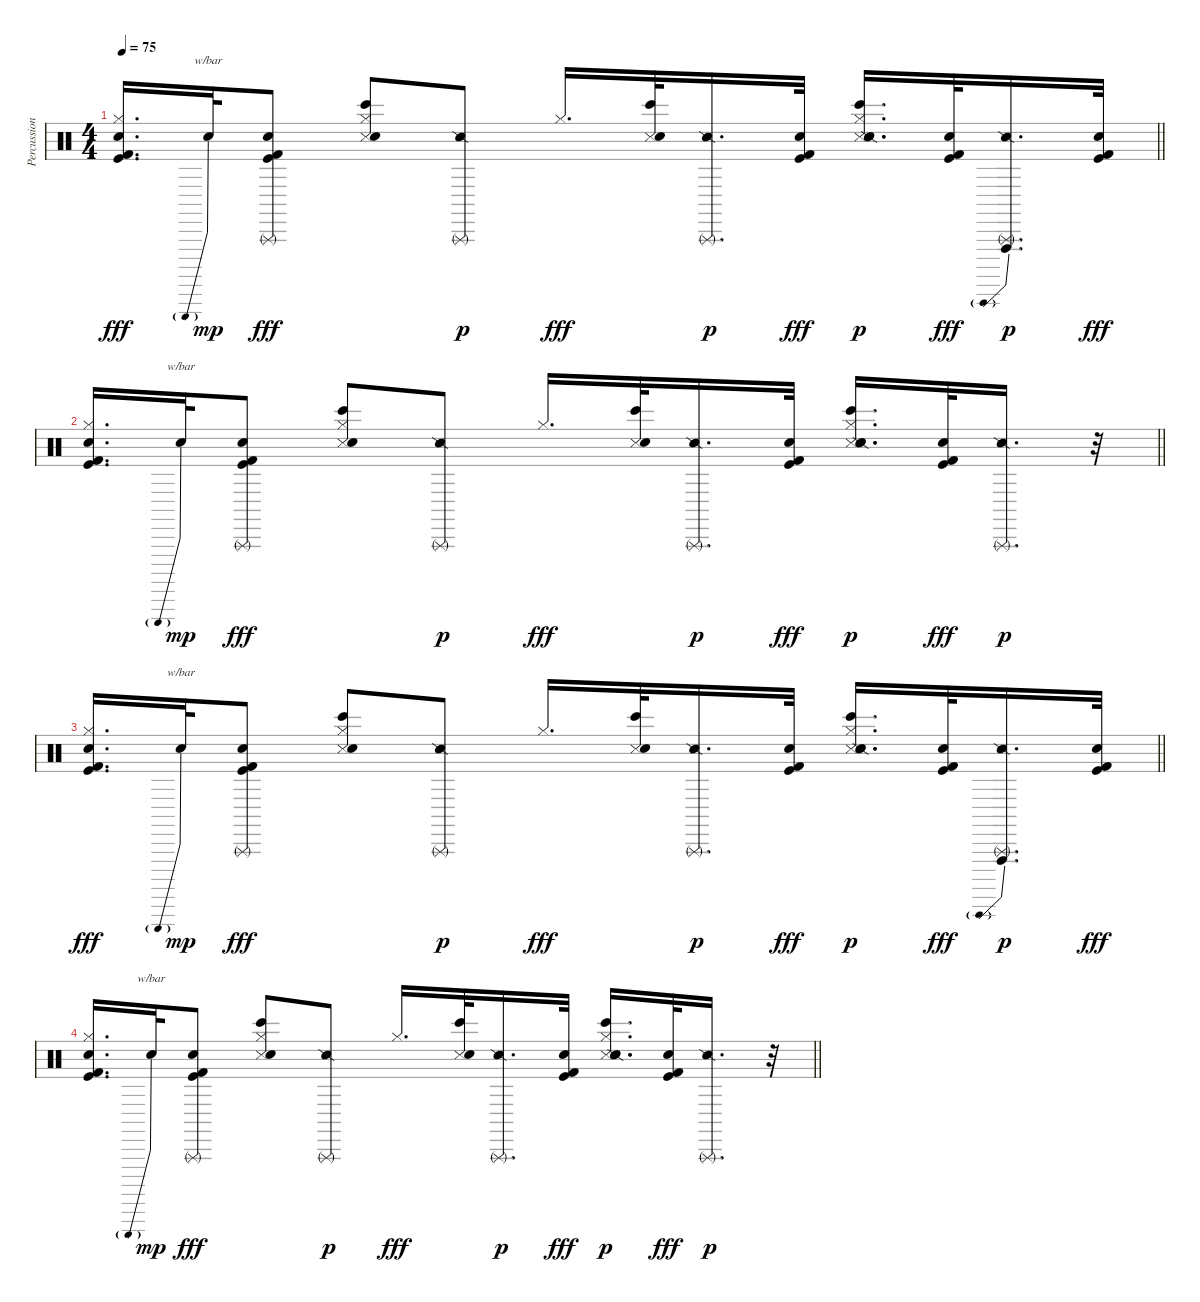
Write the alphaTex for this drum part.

\track ("Percussion" "Percussion") {instrument percussion}
\staff {score}
\articulation defaults
\ts (4 4)
\tempo 75
\clef neutral
\barLineRight lightlight
\ks c
("Hi-Hat (closed)" "Snare (hit) 2" "Kick (hit)" "Kick (hit) 2").16{d dy fff} "Hand Clap (hit)".32{tbe (predive default 0 24 60 24) dy mp} ("Triangle (rnute)" "Snare (hit) 2" "Kick (hit)" "Kick (hit) 2").8{dy fff} ("Hi-Hat (closed)" "Snare (side stick) 3" "Snare (hit) 2" "Bongo High (hit)").8 ("Triangle (rnute)" "Snare (side stick) 2").8{dy p} "Hi-Hat (closed)".16{d dy fff} ("Snare (side stick) 3" "Snare (hit) 2" "Bongo High (hit)").32 ("Triangle (rnute)" "Snare (side stick) 2").16{d dy p} ("Snare (hit) 2" "Kick (hit)" "Kick (hit) 2").32{dy fff} ("Hi-Hat (closed)" "Snare (side stick) 3" "Snare (hit) 2" "Bongo High (hit)" "Snare (side stick) 2").16{d dy p} ("Snare (hit) 2" "Kick (hit)" "Kick (hit) 2").32{dy fff} ("Triangle (rnute)" "Snare (side stick) 2" "Vibraslap (hit)"{be (prebend 0 12 60 12)}).16{d dy p} ("Snare (hit) 2" "Kick (hit)" "Kick (hit) 2").32{dy fff} |
\barLineRight lightlight
("Hi-Hat (closed)" "Snare (hit) 2" "Kick (hit)" "Kick (hit) 2").16{d} "Hand Clap (hit)".32{tbe (predive default 0 24 60 24) dy mp} ("Triangle (rnute)" "Snare (hit) 2" "Kick (hit)" "Kick (hit) 2").8{dy fff} ("Hi-Hat (closed)" "Snare (side stick) 3" "Snare (hit) 2" "Bongo High (hit)").8 ("Triangle (rnute)" "Snare (side stick) 2").8{dy p} "Hi-Hat (closed)".16{d dy fff} ("Snare (side stick) 3" "Snare (hit) 2" "Bongo High (hit)").32 ("Triangle (rnute)" "Snare (side stick) 2").16{d dy p} ("Snare (hit) 2" "Kick (hit)" "Kick (hit) 2").32{dy fff} ("Hi-Hat (closed)" "Snare (side stick) 3" "Snare (hit) 2" "Bongo High (hit)" "Snare (side stick) 2").16{d dy p} ("Snare (hit) 2" "Kick (hit)" "Kick (hit) 2").32{dy fff} ("Triangle (rnute)" "Snare (side stick) 2").16{d dy p} r.32 |
\barLineRight lightlight
("Hi-Hat (closed)" "Snare (hit) 2" "Kick (hit)" "Kick (hit) 2").16{d dy fff} "Hand Clap (hit)".32{tbe (predive default 0 24 60 24) dy mp} ("Triangle (rnute)" "Snare (hit) 2" "Kick (hit)" "Kick (hit) 2").8{dy fff} ("Hi-Hat (closed)" "Snare (side stick) 3" "Snare (hit) 2" "Bongo High (hit)").8 ("Triangle (rnute)" "Snare (side stick) 2").8{dy p} "Hi-Hat (closed)".16{d dy fff} ("Snare (side stick) 3" "Snare (hit) 2" "Bongo High (hit)").32 ("Triangle (rnute)" "Snare (side stick) 2").16{d dy p} ("Snare (hit) 2" "Kick (hit)" "Kick (hit) 2").32{dy fff} ("Hi-Hat (closed)" "Snare (side stick) 3" "Snare (hit) 2" "Bongo High (hit)" "Snare (side stick) 2").16{d dy p} ("Snare (hit) 2" "Kick (hit)" "Kick (hit) 2").32{dy fff} ("Triangle (rnute)" "Snare (side stick) 2" "Vibraslap (hit)"{be (prebend 0 12 60 12)}).16{d dy p} ("Snare (hit) 2" "Kick (hit)" "Kick (hit) 2").32{dy fff} |
\barLineRight lightlight
("Hi-Hat (closed)" "Snare (hit) 2" "Kick (hit)" "Kick (hit) 2").16{d} "Hand Clap (hit)".32{tbe (predive default 0 24 60 24) dy mp} ("Triangle (rnute)" "Snare (hit) 2" "Kick (hit)" "Kick (hit) 2").8{dy fff} ("Hi-Hat (closed)" "Snare (side stick) 3" "Snare (hit) 2" "Bongo High (hit)").8 ("Triangle (rnute)" "Snare (side stick) 2").8{dy p} "Hi-Hat (closed)".16{d dy fff} ("Snare (side stick) 3" "Snare (hit) 2" "Bongo High (hit)").32 ("Triangle (rnute)" "Snare (side stick) 2").16{d dy p} ("Snare (hit) 2" "Kick (hit)" "Kick (hit) 2").32{dy fff} ("Hi-Hat (closed)" "Snare (side stick) 3" "Snare (hit) 2" "Bongo High (hit)" "Snare (side stick) 2").16{d dy p} ("Snare (hit) 2" "Kick (hit)" "Kick (hit) 2").32{dy fff} ("Triangle (rnute)" "Snare (side stick) 2").16{d dy p} r.32
